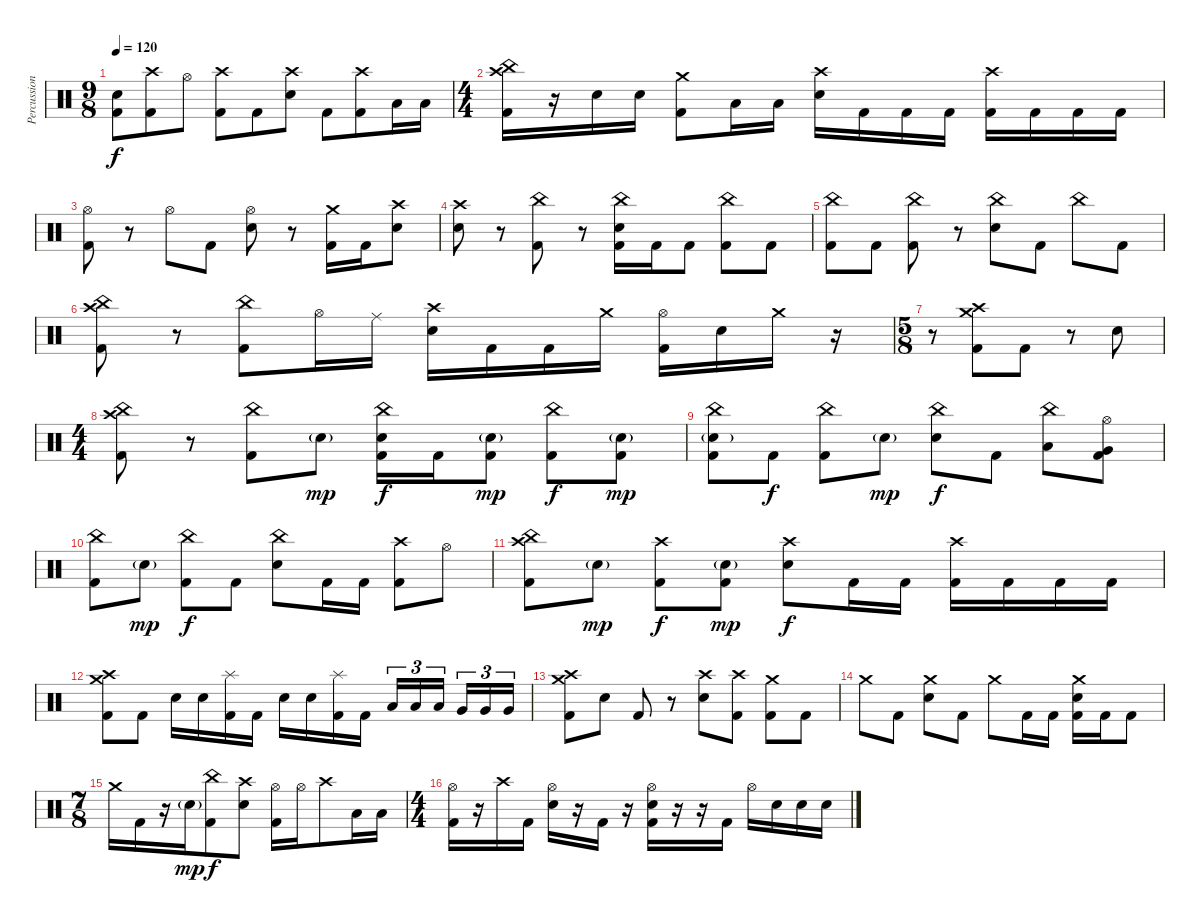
\track ("Percussion" "Percussion") {instrument percussion}
\staff {score}
\articulation defaults
\ts (9 8)
\tempo 120
\clef neutral
\ks c
("Electric Snare (hit)" "Kick (hit) 2").8{dy f} ("Crash high (hit)" "Kick (hit) 2").8 "Hi-Hat (open)".8 ("Crash high (hit)" "Kick (hit) 2").8 "Kick (hit) 2".8 ("Crash high (hit)" "Electric Snare (hit)").8 "Kick (hit) 2".8 ("Crash high (hit)" "Kick (hit) 2").8 "Low Tom (hit)".16 "Low Tom (hit)".16 |
\ts (4 4)
("Crash high (hit)" "China (hit)" "Kick (hit) 2").16 r.16 "Electric Snare (hit)".16 "Electric Snare (hit)".16 ("Crash medium (hit)" "Kick (hit) 2").8 "Low Tom (hit)".16 "Low Tom (hit)".16 ("Crash high (hit)" "Electric Snare (hit)").16 "Kick (hit) 2".16 "Kick (hit) 2".16 "Kick (hit) 2".16 ("Crash high (hit)" "Kick (hit) 2").16 "Kick (hit) 2".16 "Kick (hit) 2".16 "Kick (hit) 2".16 |
("Hi-Hat (open)" "Kick (hit) 2").8 r.8 "Hi-Hat (open)".8 "Kick (hit) 2".8 ("Hi-Hat (open)" "Electric Snare (hit)").8 r.8 ("Crash medium (hit)" "Kick (hit) 2").16 "Kick (hit) 2".16 ("Crash high (hit)" "Electric Snare (hit)").8 |
("Crash high (hit)" "Electric Snare (hit)").8 r.8 ("China (hit)" "Kick (hit) 2").8 r.8 ("China (hit)" "Electric Snare (hit)" "Kick (hit) 2").16 "Kick (hit) 2".16 "Kick (hit) 2".8 ("China (hit)" "Kick (hit) 2").8 "Kick (hit) 2".8 |
("China (hit)" "Kick (hit) 2").8 "Kick (hit) 2".8 ("China (hit)" "Kick (hit) 2").8 r.8 ("China (hit)" "Electric Snare (hit)").8 "Kick (hit) 2".8 "China (hit)".8 "Kick (hit) 2".8 |
("China (hit)" "Crash high (hit)" "Kick (hit) 2").8 r.8 ("China (hit)" "Kick (hit) 2").8 "Hi-Hat (open)".16 "Ride (middle)".16 ("Crash high (hit)" "Electric Snare (hit)").16 "Kick (hit) 2".16 "Kick (hit) 2".16 "Crash medium (hit)".16 ("Hi-Hat (open)" "Kick (hit) 2").16 "Electric Snare (hit)".16 "Crash medium (hit)".16 r.16 |
\ts (5 8)
r.8 ("Crash medium (hit)" "Crash high (hit)" "Kick (hit) 2").8 "Kick (hit) 2".8 r.8 "Electric Snare (hit)".8 |
\ts (4 4)
("China (hit)" "Crash high (hit)" "Kick (hit) 2").8 r.8 ("China (hit)" "Kick (hit) 2").8 "Electric Snare (hit)"{g}.8{dy mp} ("China (hit)" "Electric Snare (hit)" "Kick (hit) 2").16{dy f} "Kick (hit) 2".16 ("Electric Snare (hit)"{g} "Kick (hit) 2").8{dy mp} ("China (hit)" "Kick (hit) 2").8{dy f} ("Electric Snare (hit)"{g} "Kick (hit) 2").8{dy mp} |
("China (hit)" "Electric Snare (hit)"{g} "Kick (hit) 2").8 "Kick (hit) 2".8{dy f} ("China (hit)" "Kick (hit) 2").8 "Electric Snare (hit)"{g}.8{dy mp} ("China (hit)" "Electric Snare (hit)").8{dy f} "Kick (hit) 2".8 ("China (hit)" "Low Tom (hit)").8 ("Hi-Hat (open)" "Very Low Tom (hit)" "Kick (hit) 2").8 |
("China (hit)" "Kick (hit) 2").8 "Electric Snare (hit)"{g}.8{dy mp} ("China (hit)" "Kick (hit) 2").8{dy f} "Kick (hit) 2".8 ("China (hit)" "Electric Snare (hit)").8 "Kick (hit) 2".16 "Kick (hit) 2".16 ("Crash high (hit)" "Kick (hit) 2").8 "Hi-Hat (open)".8 |
("Crash high (hit)" "China (hit)" "Kick (hit) 2").8 "Electric Snare (hit)"{g}.8{dy mp} ("Crash high (hit)" "Kick (hit) 2").8{dy f} ("Electric Snare (hit)"{g} "Kick (hit) 2").8{dy mp} ("Crash high (hit)" "Electric Snare (hit)").8{dy f} "Kick (hit) 2".16 "Kick (hit) 2".16 ("Crash high (hit)" "Kick (hit) 2").16 "Kick (hit) 2".16 "Kick (hit) 2".16 "Kick (hit) 2".16 |
("Crash medium (hit)" "Crash high (hit)" "Kick (hit) 2").8 "Kick (hit) 2".8 "Electric Snare (hit)".16 "Electric Snare (hit)".16 ("Splash (hit)" "Kick (hit) 2").16 "Kick (hit) 2".16 "Electric Snare (hit)".16 "Electric Snare (hit)".16 ("Splash (hit)" "Kick (hit) 2").16 "Kick (hit) 2".16 "Low Tom (hit)".16{tu (3 2)} "Low Tom (hit)".16{tu (3 2)} "Low Tom (hit)".16{tu (3 2) beam splitsecondary} "Very Low Tom (hit)".16{tu (3 2)} "Very Low Tom (hit)".16{tu (3 2)} "Very Low Tom (hit)".16{tu (3 2)} |
("Crash medium (hit)" "Crash high (hit)" "Kick (hit) 2").8 "Electric Snare (hit)".8 "Kick (hit) 2".8 r.8 ("Crash high (hit)" "Electric Snare (hit)").8 ("Crash high (hit)" "Kick (hit) 2").8 ("Crash medium (hit)" "Kick (hit) 2").8 "Kick (hit) 2".8 |
"Crash medium (hit)".8 "Kick (hit) 2".8 ("Crash medium (hit)" "Electric Snare (hit)").8 "Kick (hit) 2".8 "Crash medium (hit)".8 "Kick (hit) 2".16 "Kick (hit) 2".16 ("Crash medium (hit)" "Electric Snare (hit)" "Kick (hit) 2").16 "Kick (hit) 2".16 "Kick (hit) 2".8 |
\ts (7 8)
"Crash medium (hit)".16 "Kick (hit) 2".16 r.16 "Electric Snare (hit)"{g}.16{dy mp} ("China (hit)" "Kick (hit) 2").8{dy f} ("Crash high (hit)" "Electric Snare (hit)").8 ("Hi-Hat (open)" "Kick (hit) 2").16 "Hi-Hat (open)".16 "Crash high (hit)".8 "Low Tom (hit)".16 "Low Tom (hit)".16 |
\ts (4 4)
("Hi-Hat (open)" "Kick (hit) 2").16 r.16 "Crash high (hit)".16 "Kick (hit) 2".16 ("Hi-Hat (open)" "Electric Snare (hit)").16 r.16 "Kick (hit) 2".16 r.16 ("Hi-Hat (open)" "Electric Snare (hit)" "Kick (hit) 2").16 r.16 r.16 "Kick (hit) 2".16 "Hi-Hat (open)".16 "Electric Snare (hit)".16 "Electric Snare (hit)".16 "Electric Snare (hit)".16
